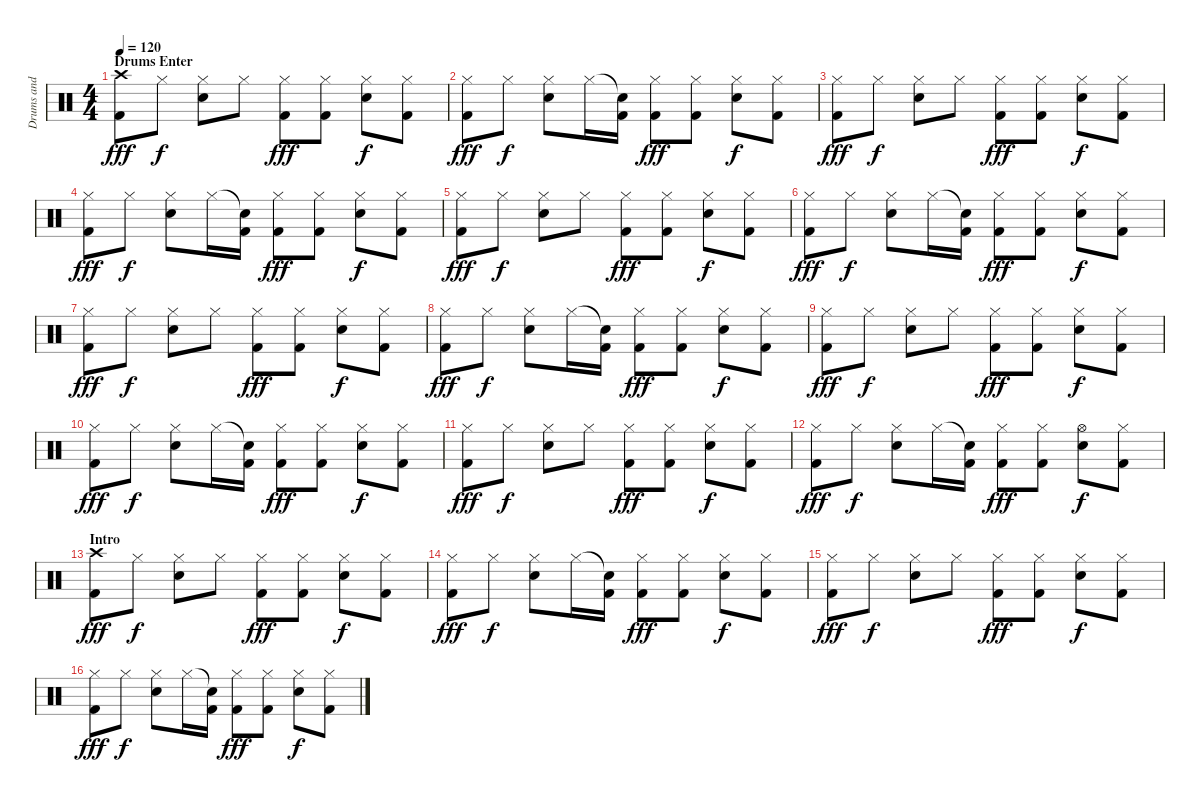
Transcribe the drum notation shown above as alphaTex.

\track ("Drums and Percussion" "Drums and ") {instrument percussion}
\staff {score}
\articulation defaults
\ts (4 4)
\section ("" "Drums Enter")
\tempo 120
\clef neutral
\ks c
("Crash high (hit)" "Kick (hit) 2").8{dy fff} "Hi-Hat (closed)".8{dy f} ("Hi-Hat (closed)" "Snare (hit) 2").8 "Hi-Hat (closed)".8 ("Hi-Hat (closed)" "Kick (hit) 2").8{dy fff} ("Hi-Hat (closed)" "Kick (hit) 2").8 ("Hi-Hat (closed)" "Snare (hit) 2").8{dy f} ("Hi-Hat (closed)" "Kick (hit) 2").8 |
("Hi-Hat (closed)" "Kick (hit) 2").8{dy fff} "Hi-Hat (closed)".8{dy f} ("Hi-Hat (closed)" "Snare (hit) 2").8 "Hi-Hat (closed)".16 ("Snare (hit)"{t} "Kick (hit) 2").16 ("Hi-Hat (closed)" "Kick (hit) 2").8{dy fff} ("Hi-Hat (closed)" "Kick (hit) 2").8 ("Hi-Hat (closed)" "Snare (hit) 2").8{dy f} ("Hi-Hat (closed)" "Kick (hit) 2").8 |
("Hi-Hat (closed)" "Kick (hit) 2").8{dy fff} "Hi-Hat (closed)".8{dy f} ("Hi-Hat (closed)" "Snare (hit) 2").8 "Hi-Hat (closed)".8 ("Hi-Hat (closed)" "Kick (hit) 2").8{dy fff} ("Hi-Hat (closed)" "Kick (hit) 2").8 ("Hi-Hat (closed)" "Snare (hit) 2").8{dy f} ("Hi-Hat (closed)" "Kick (hit) 2").8 |
("Hi-Hat (closed)" "Kick (hit) 2").8{dy fff} "Hi-Hat (closed)".8{dy f} ("Hi-Hat (closed)" "Snare (hit) 2").8 "Hi-Hat (closed)".16 ("Snare (hit)"{t} "Kick (hit) 2").16 ("Hi-Hat (closed)" "Kick (hit) 2").8{dy fff} ("Hi-Hat (closed)" "Kick (hit) 2").8 ("Hi-Hat (closed)" "Snare (hit) 2").8{dy f} ("Hi-Hat (closed)" "Kick (hit) 2").8 |
("Hi-Hat (closed)" "Kick (hit) 2").8{dy fff} "Hi-Hat (closed)".8{dy f} ("Hi-Hat (closed)" "Snare (hit) 2").8 "Hi-Hat (closed)".8 ("Hi-Hat (closed)" "Kick (hit) 2").8{dy fff} ("Hi-Hat (closed)" "Kick (hit) 2").8 ("Hi-Hat (closed)" "Snare (hit) 2").8{dy f} ("Hi-Hat (closed)" "Kick (hit) 2").8 |
("Hi-Hat (closed)" "Kick (hit) 2").8{dy fff} "Hi-Hat (closed)".8{dy f} ("Hi-Hat (closed)" "Snare (hit) 2").8 "Hi-Hat (closed)".16 ("Snare (hit)"{t} "Kick (hit) 2").16 ("Hi-Hat (closed)" "Kick (hit) 2").8{dy fff} ("Hi-Hat (closed)" "Kick (hit) 2").8 ("Hi-Hat (closed)" "Snare (hit) 2").8{dy f} ("Hi-Hat (closed)" "Kick (hit) 2").8 |
("Hi-Hat (closed)" "Kick (hit) 2").8{dy fff} "Hi-Hat (closed)".8{dy f} ("Hi-Hat (closed)" "Snare (hit) 2").8 "Hi-Hat (closed)".8 ("Hi-Hat (closed)" "Kick (hit) 2").8{dy fff} ("Hi-Hat (closed)" "Kick (hit) 2").8 ("Hi-Hat (closed)" "Snare (hit) 2").8{dy f} ("Hi-Hat (closed)" "Kick (hit) 2").8 |
("Hi-Hat (closed)" "Kick (hit) 2").8{dy fff} "Hi-Hat (closed)".8{dy f} ("Hi-Hat (closed)" "Snare (hit) 2").8 "Hi-Hat (closed)".16 ("Snare (hit)"{t} "Kick (hit) 2").16 ("Hi-Hat (closed)" "Kick (hit) 2").8{dy fff} ("Hi-Hat (closed)" "Kick (hit) 2").8 ("Hi-Hat (closed)" "Snare (hit) 2").8{dy f} ("Hi-Hat (closed)" "Kick (hit) 2").8 |
("Hi-Hat (closed)" "Kick (hit) 2").8{dy fff} "Hi-Hat (closed)".8{dy f} ("Hi-Hat (closed)" "Snare (hit) 2").8 "Hi-Hat (closed)".8 ("Hi-Hat (closed)" "Kick (hit) 2").8{dy fff} ("Hi-Hat (closed)" "Kick (hit) 2").8 ("Hi-Hat (closed)" "Snare (hit) 2").8{dy f} ("Hi-Hat (closed)" "Kick (hit) 2").8 |
("Hi-Hat (closed)" "Kick (hit) 2").8{dy fff} "Hi-Hat (closed)".8{dy f} ("Hi-Hat (closed)" "Snare (hit) 2").8 "Hi-Hat (closed)".16 ("Snare (hit)"{t} "Kick (hit) 2").16 ("Hi-Hat (closed)" "Kick (hit) 2").8{dy fff} ("Hi-Hat (closed)" "Kick (hit) 2").8 ("Hi-Hat (closed)" "Snare (hit) 2").8{dy f} ("Hi-Hat (closed)" "Kick (hit) 2").8 |
("Hi-Hat (closed)" "Kick (hit) 2").8{dy fff} "Hi-Hat (closed)".8{dy f} ("Hi-Hat (closed)" "Snare (hit) 2").8 "Hi-Hat (closed)".8 ("Hi-Hat (closed)" "Kick (hit) 2").8{dy fff} ("Hi-Hat (closed)" "Kick (hit) 2").8 ("Hi-Hat (closed)" "Snare (hit) 2").8{dy f} ("Hi-Hat (closed)" "Kick (hit) 2").8 |
("Hi-Hat (closed)" "Kick (hit) 2").8{dy fff} "Hi-Hat (closed)".8{dy f} ("Hi-Hat (closed)" "Snare (hit) 2").8 "Hi-Hat (closed)".16 ("Snare (hit)"{t} "Kick (hit) 2").16 ("Hi-Hat (closed)" "Kick (hit) 2").8{dy fff} ("Hi-Hat (closed)" "Kick (hit) 2").8 ("Hi-Hat (open)" "Snare (hit) 2").8{dy f} ("Hi-Hat (closed)" "Kick (hit) 2").8 |
\section ("" "Intro")
("Crash high (hit)" "Kick (hit) 2").8{dy fff} "Hi-Hat (closed)".8{dy f} ("Hi-Hat (closed)" "Snare (hit) 2").8 "Hi-Hat (closed)".8 ("Hi-Hat (closed)" "Kick (hit) 2").8{dy fff} ("Hi-Hat (closed)" "Kick (hit) 2").8 ("Hi-Hat (closed)" "Snare (hit) 2").8{dy f} ("Hi-Hat (closed)" "Kick (hit) 2").8 |
("Hi-Hat (closed)" "Kick (hit) 2").8{dy fff} "Hi-Hat (closed)".8{dy f} ("Hi-Hat (closed)" "Snare (hit) 2").8 "Hi-Hat (closed)".16 ("Snare (hit)"{t} "Kick (hit) 2").16 ("Hi-Hat (closed)" "Kick (hit) 2").8{dy fff} ("Hi-Hat (closed)" "Kick (hit) 2").8 ("Hi-Hat (closed)" "Snare (hit) 2").8{dy f} ("Hi-Hat (closed)" "Kick (hit) 2").8 |
("Hi-Hat (closed)" "Kick (hit) 2").8{dy fff} "Hi-Hat (closed)".8{dy f} ("Hi-Hat (closed)" "Snare (hit) 2").8 "Hi-Hat (closed)".8 ("Hi-Hat (closed)" "Kick (hit) 2").8{dy fff} ("Hi-Hat (closed)" "Kick (hit) 2").8 ("Hi-Hat (closed)" "Snare (hit) 2").8{dy f} ("Hi-Hat (closed)" "Kick (hit) 2").8 |
("Hi-Hat (closed)" "Kick (hit) 2").8{dy fff} "Hi-Hat (closed)".8{dy f} ("Hi-Hat (closed)" "Snare (hit) 2").8 "Hi-Hat (closed)".16 ("Snare (hit)"{t} "Kick (hit) 2").16 ("Hi-Hat (closed)" "Kick (hit) 2").8{dy fff} ("Hi-Hat (closed)" "Kick (hit) 2").8 ("Hi-Hat (closed)" "Snare (hit) 2").8{dy f} ("Hi-Hat (closed)" "Kick (hit) 2").8
